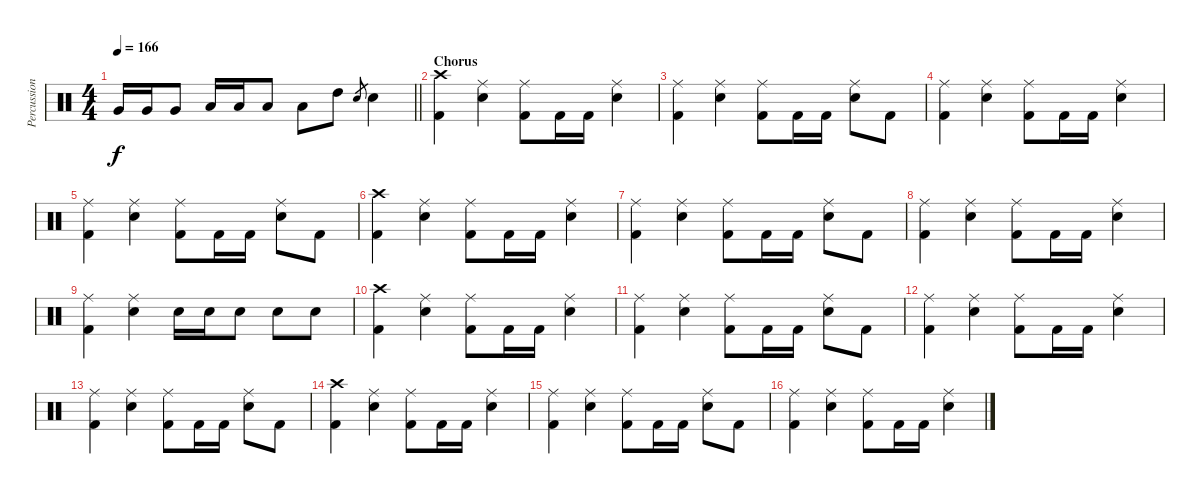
\track ("Percussion" "Percussion") {solo instrument percussion}
\staff {score}
\articulation defaults
\ts (4 4)
\tempo 166
\clef neutral
\barLineRight lightlight
\ks aminor "Very Low Tom (hit)".16{dy f} "Very Low Tom (hit)".16 "Very Low Tom (hit)".8 "Low Floor Tom (hit)".16 "Low Floor Tom (hit)".16 "Low Floor Tom (hit)".8 "Low Tom (hit)".8 "High Tom (hit)".8 "Snare (hit) 2".8{gr} "Snare (hit) 2".4
|
\section ("" "Chorus")
\ks c
("Crash high (hit)" "Kick (hit) 2").4 ("Snare (hit) 2" "Ride (middle)").4 ("Ride (middle)" "Kick (hit) 2").8 "Kick (hit) 2".16 "Kick (hit) 2".16 ("Snare (hit) 2" "Ride (middle)").4 |
("Ride (middle)" "Kick (hit) 2").4 ("Snare (hit) 2" "Ride (middle)").4 ("Ride (middle)" "Kick (hit) 2").8 "Kick (hit) 2".16 "Kick (hit) 2".16 ("Ride (middle)" "Snare (hit) 2").8 "Kick (hit) 2".8 |
("Ride (middle)" "Kick (hit) 2").4 ("Snare (hit) 2" "Ride (middle)").4 ("Ride (middle)" "Kick (hit) 2").8 "Kick (hit) 2".16 "Kick (hit) 2".16 ("Ride (middle)" "Snare (hit) 2").4 |
("Ride (middle)" "Kick (hit) 2").4 ("Snare (hit) 2" "Ride (middle)").4 ("Ride (middle)" "Kick (hit) 2").8 "Kick (hit) 2".16 "Kick (hit) 2".16 ("Ride (middle)" "Snare (hit) 2").8 "Kick (hit) 2".8 |
("Crash high (hit)" "Kick (hit) 2").4 ("Snare (hit) 2" "Ride (middle)").4 ("Ride (middle)" "Kick (hit) 2").8 "Kick (hit) 2".16 "Kick (hit) 2".16 ("Snare (hit) 2" "Ride (middle)").4 |
("Ride (middle)" "Kick (hit) 2").4 ("Snare (hit) 2" "Ride (middle)").4 ("Ride (middle)" "Kick (hit) 2").8 "Kick (hit) 2".16 "Kick (hit) 2".16 ("Ride (middle)" "Snare (hit) 2").8 "Kick (hit) 2".8 |
("Ride (middle)" "Kick (hit) 2").4 ("Snare (hit) 2" "Ride (middle)").4 ("Ride (middle)" "Kick (hit) 2").8 "Kick (hit) 2".16 "Kick (hit) 2".16 ("Ride (middle)" "Snare (hit) 2").4 |
("Ride (middle)" "Kick (hit) 2").4 ("Snare (hit) 2" "Ride (middle)").4 "Snare (hit) 2".16 "Snare (hit) 2".16 "Snare (hit) 2".8 "Snare (hit) 2".8 "Snare (hit) 2".8 |
("Crash high (hit)" "Kick (hit) 2").4 ("Snare (hit) 2" "Ride (middle)").4 ("Ride (middle)" "Kick (hit) 2").8 "Kick (hit) 2".16 "Kick (hit) 2".16 ("Snare (hit) 2" "Ride (middle)").4 |
("Ride (middle)" "Kick (hit) 2").4 ("Snare (hit) 2" "Ride (middle)").4 ("Ride (middle)" "Kick (hit) 2").8 "Kick (hit) 2".16 "Kick (hit) 2".16 ("Ride (middle)" "Snare (hit) 2").8 "Kick (hit) 2".8 |
("Ride (middle)" "Kick (hit) 2").4 ("Snare (hit) 2" "Ride (middle)").4 ("Ride (middle)" "Kick (hit) 2").8 "Kick (hit) 2".16 "Kick (hit) 2".16 ("Ride (middle)" "Snare (hit) 2").4 |
("Ride (middle)" "Kick (hit) 2").4 ("Snare (hit) 2" "Ride (middle)").4 ("Ride (middle)" "Kick (hit) 2").8 "Kick (hit) 2".16 "Kick (hit) 2".16 ("Ride (middle)" "Snare (hit) 2").8 "Kick (hit) 2".8 |
("Crash high (hit)" "Kick (hit) 2").4 ("Snare (hit) 2" "Ride (middle)").4 ("Ride (middle)" "Kick (hit) 2").8 "Kick (hit) 2".16 "Kick (hit) 2".16 ("Snare (hit) 2" "Ride (middle)").4 |
("Ride (middle)" "Kick (hit) 2").4 ("Snare (hit) 2" "Ride (middle)").4 ("Ride (middle)" "Kick (hit) 2").8 "Kick (hit) 2".16 "Kick (hit) 2".16 ("Ride (middle)" "Snare (hit) 2").8 "Kick (hit) 2".8 |
("Ride (middle)" "Kick (hit) 2").4 ("Snare (hit) 2" "Ride (middle)").4 ("Ride (middle)" "Kick (hit) 2").8 "Kick (hit) 2".16 "Kick (hit) 2".16 ("Ride (middle)" "Snare (hit) 2").4
